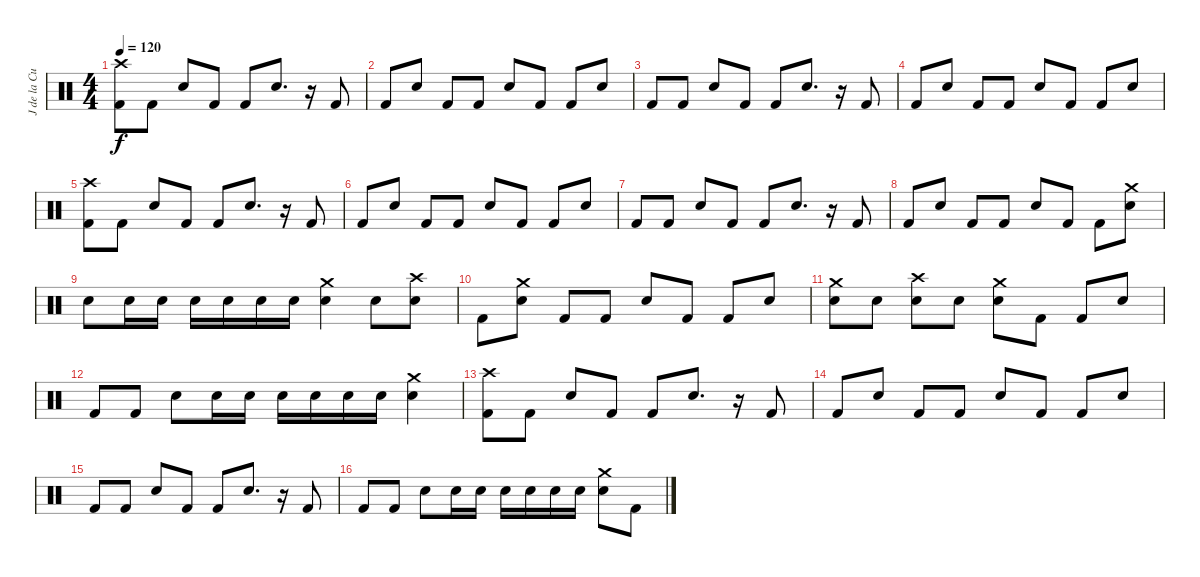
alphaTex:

\track ("J de la Cueva" "J de la Cu") {instrument percussion}
\staff {score}
\articulation defaults
\ts (4 4)
\tempo 120
\clef neutral
\ks c
("Crash high (hit)" "Kick (hit) 2").8{dy f} "Kick (hit) 2".8 "Snare (hit) 2".8 "Kick (hit) 2".8 "Kick (hit) 2".8 "Snare (hit) 2".8{d} r.16 "Kick (hit) 2".8 |
"Kick (hit) 2".8 "Snare (hit) 2".8 "Kick (hit) 2".8 "Kick (hit) 2".8 "Snare (hit) 2".8 "Kick (hit) 2".8 "Kick (hit) 2".8 "Snare (hit) 2".8 |
"Kick (hit) 2".8 "Kick (hit) 2".8 "Snare (hit) 2".8 "Kick (hit) 2".8 "Kick (hit) 2".8 "Snare (hit) 2".8{d} r.16 "Kick (hit) 2".8 |
"Kick (hit) 2".8 "Snare (hit) 2".8 "Kick (hit) 2".8 "Kick (hit) 2".8 "Snare (hit) 2".8 "Kick (hit) 2".8 "Kick (hit) 2".8 "Snare (hit) 2".8 |
("Crash high (hit)" "Kick (hit) 2").8 "Kick (hit) 2".8 "Snare (hit) 2".8 "Kick (hit) 2".8 "Kick (hit) 2".8 "Snare (hit) 2".8{d} r.16 "Kick (hit) 2".8 |
"Kick (hit) 2".8 "Snare (hit) 2".8 "Kick (hit) 2".8 "Kick (hit) 2".8 "Snare (hit) 2".8 "Kick (hit) 2".8 "Kick (hit) 2".8 "Snare (hit) 2".8 |
"Kick (hit) 2".8 "Kick (hit) 2".8 "Snare (hit) 2".8 "Kick (hit) 2".8 "Kick (hit) 2".8 "Snare (hit) 2".8{d} r.16 "Kick (hit) 2".8 |
"Kick (hit) 2".8 "Snare (hit) 2".8 "Kick (hit) 2".8 "Kick (hit) 2".8 "Snare (hit) 2".8 "Kick (hit) 2".8 "Kick (hit) 2".8 ("Crash medium (hit)" "Snare (hit) 2").8 |
"Snare (hit) 2".8 "Snare (hit) 2".16 "Snare (hit) 2".16 "Snare (hit) 2".16 "Snare (hit) 2".16 "Snare (hit) 2".16 "Snare (hit) 2".16 ("Crash medium (hit)" "Snare (hit) 2").4 "Snare (hit) 2".8 ("Crash high (hit)" "Snare (hit) 2").8 |
"Kick (hit) 2".8 ("Crash medium (hit)" "Snare (hit) 2").8 "Kick (hit) 2".8 "Kick (hit) 2".8 "Snare (hit) 2".8 "Kick (hit) 2".8 "Kick (hit) 2".8 "Snare (hit) 2".8 |
("Crash medium (hit)" "Snare (hit) 2").8 "Snare (hit) 2".8 ("Crash high (hit)" "Snare (hit) 2").8 "Snare (hit) 2".8 ("Crash medium (hit)" "Snare (hit) 2").8 "Kick (hit) 2".8 "Kick (hit) 2".8 "Snare (hit) 2".8 |
"Kick (hit) 2".8 "Kick (hit) 2".8 "Snare (hit) 2".8 "Snare (hit) 2".16 "Snare (hit) 2".16 "Snare (hit) 2".16 "Snare (hit) 2".16 "Snare (hit) 2".16 "Snare (hit) 2".16 ("Crash medium (hit)" "Snare (hit) 2").4 |
("Crash high (hit)" "Kick (hit) 2").8 "Kick (hit) 2".8 "Snare (hit) 2".8 "Kick (hit) 2".8 "Kick (hit) 2".8 "Snare (hit) 2".8{d} r.16 "Kick (hit) 2".8 |
"Kick (hit) 2".8 "Snare (hit) 2".8 "Kick (hit) 2".8 "Kick (hit) 2".8 "Snare (hit) 2".8 "Kick (hit) 2".8 "Kick (hit) 2".8 "Snare (hit) 2".8 |
"Kick (hit) 2".8 "Kick (hit) 2".8 "Snare (hit) 2".8 "Kick (hit) 2".8 "Kick (hit) 2".8 "Snare (hit) 2".8{d} r.16 "Kick (hit) 2".8 |
"Kick (hit) 2".8 "Kick (hit) 2".8 "Snare (hit) 2".8 "Snare (hit) 2".16 "Snare (hit) 2".16 "Snare (hit) 2".16 "Snare (hit) 2".16 "Snare (hit) 2".16 "Snare (hit) 2".16 ("Crash medium (hit)" "Snare (hit) 2").8 "Kick (hit) 2".8
